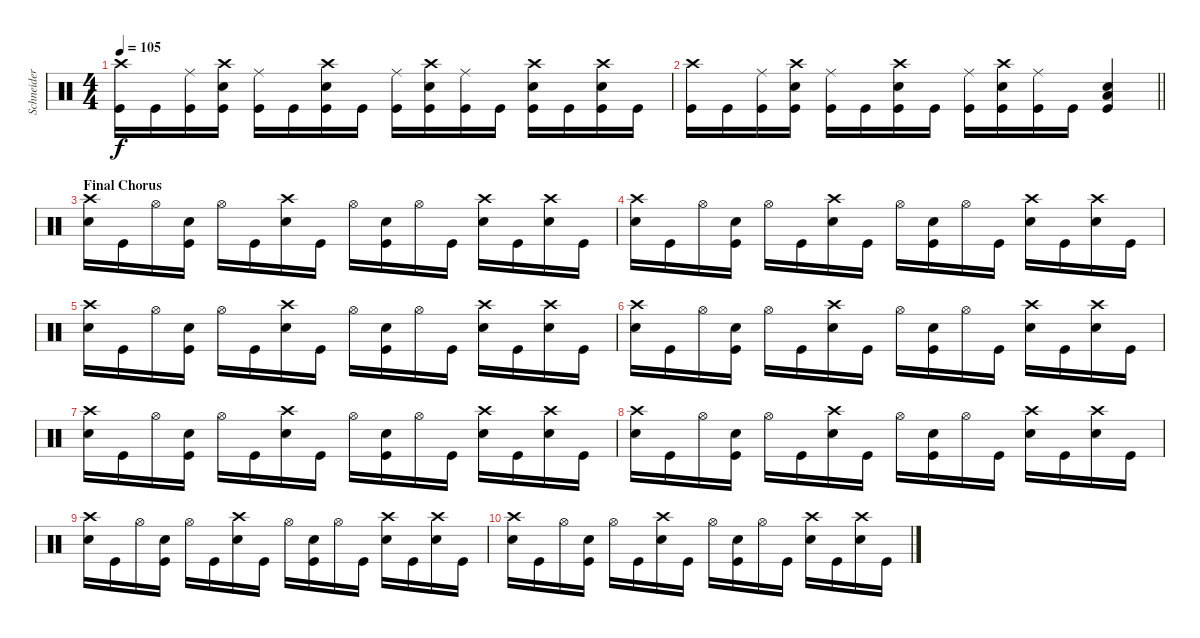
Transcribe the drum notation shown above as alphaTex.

\track ("Schneider" "Schneider") {instrument percussion}
\staff {score}
\articulation defaults
\ts (4 4)
\tempo 105
\clef neutral
\ks c
("Crash high (hit)" "Kick (hit)").16{dy f} "Kick (hit)".16 ("Ride (middle)" "Kick (hit)").16 ("Crash high (hit)" "Electric Snare (hit)" "Kick (hit)").16 ("Ride (middle)" "Kick (hit)").16 "Kick (hit)".16 ("Crash high (hit)" "Electric Snare (hit)" "Kick (hit)").16 "Kick (hit)".16 ("Ride (middle)" "Kick (hit)").16 ("Crash high (hit)" "Electric Snare (hit)" "Kick (hit)").16 ("Ride (middle)" "Kick (hit)").16 "Kick (hit)".16 ("Crash high (hit)" "Electric Snare (hit)" "Kick (hit)").16 "Kick (hit)".16 ("Crash high (hit)" "Electric Snare (hit)" "Kick (hit)").16 "Kick (hit)".16 |
\barLineRight lightlight
("Crash high (hit)" "Kick (hit)").16 "Kick (hit)".16 ("Ride (middle)" "Kick (hit)").16 ("Crash high (hit)" "Electric Snare (hit)" "Kick (hit)").16 ("Ride (middle)" "Kick (hit)").16 "Kick (hit)".16 ("Crash high (hit)" "Electric Snare (hit)" "Kick (hit)").16 "Kick (hit)".16 ("Ride (middle)" "Kick (hit)").16 ("Crash high (hit)" "Electric Snare (hit)" "Kick (hit)").16 ("Ride (middle)" "Kick (hit)").16 "Kick (hit)".16 ("Low Floor Tom (hit)" "Electric Snare (hit)" "Kick (hit)").4 |
\section ("" "Final Chorus")
("Crash high (hit)" "Electric Snare (hit)").16 "Kick (hit)".16 "Hi-Hat (open)".16 ("Electric Snare (hit)" "Kick (hit)").16 "Hi-Hat (open)".16 "Kick (hit)".16 ("Crash high (hit)" "Electric Snare (hit)").16 "Kick (hit)".16 "Hi-Hat (open)".16 ("Electric Snare (hit)" "Kick (hit)").16 "Hi-Hat (open)".16 "Kick (hit)".16 ("Crash high (hit)" "Electric Snare (hit)").16 "Kick (hit)".16 ("Crash high (hit)" "Electric Snare (hit)").16 "Kick (hit)".16 |
("Crash high (hit)" "Electric Snare (hit)").16 "Kick (hit)".16 "Hi-Hat (open)".16 ("Electric Snare (hit)" "Kick (hit)").16 "Hi-Hat (open)".16 "Kick (hit)".16 ("Crash high (hit)" "Electric Snare (hit)").16 "Kick (hit)".16 "Hi-Hat (open)".16 ("Electric Snare (hit)" "Kick (hit)").16 "Hi-Hat (open)".16 "Kick (hit)".16 ("Crash high (hit)" "Electric Snare (hit)").16 "Kick (hit)".16 ("Crash high (hit)" "Electric Snare (hit)").16 "Kick (hit)".16 |
("Crash high (hit)" "Electric Snare (hit)").16 "Kick (hit)".16 "Hi-Hat (open)".16 ("Electric Snare (hit)" "Kick (hit)").16 "Hi-Hat (open)".16 "Kick (hit)".16 ("Crash high (hit)" "Electric Snare (hit)").16 "Kick (hit)".16 "Hi-Hat (open)".16 ("Electric Snare (hit)" "Kick (hit)").16 "Hi-Hat (open)".16 "Kick (hit)".16 ("Crash high (hit)" "Electric Snare (hit)").16 "Kick (hit)".16 ("Crash high (hit)" "Electric Snare (hit)").16 "Kick (hit)".16 |
("Crash high (hit)" "Electric Snare (hit)").16 "Kick (hit)".16 "Hi-Hat (open)".16 ("Electric Snare (hit)" "Kick (hit)").16 "Hi-Hat (open)".16 "Kick (hit)".16 ("Crash high (hit)" "Electric Snare (hit)").16 "Kick (hit)".16 "Hi-Hat (open)".16 ("Electric Snare (hit)" "Kick (hit)").16 "Hi-Hat (open)".16 "Kick (hit)".16 ("Crash high (hit)" "Electric Snare (hit)").16 "Kick (hit)".16 ("Crash high (hit)" "Electric Snare (hit)").16 "Kick (hit)".16 |
("Crash high (hit)" "Electric Snare (hit)").16 "Kick (hit)".16 "Hi-Hat (open)".16 ("Electric Snare (hit)" "Kick (hit)").16 "Hi-Hat (open)".16 "Kick (hit)".16 ("Crash high (hit)" "Electric Snare (hit)").16 "Kick (hit)".16 "Hi-Hat (open)".16 ("Electric Snare (hit)" "Kick (hit)").16 "Hi-Hat (open)".16 "Kick (hit)".16 ("Crash high (hit)" "Electric Snare (hit)").16 "Kick (hit)".16 ("Crash high (hit)" "Electric Snare (hit)").16 "Kick (hit)".16 |
("Crash high (hit)" "Electric Snare (hit)").16 "Kick (hit)".16 "Hi-Hat (open)".16 ("Electric Snare (hit)" "Kick (hit)").16 "Hi-Hat (open)".16 "Kick (hit)".16 ("Crash high (hit)" "Electric Snare (hit)").16 "Kick (hit)".16 "Hi-Hat (open)".16 ("Electric Snare (hit)" "Kick (hit)").16 "Hi-Hat (open)".16 "Kick (hit)".16 ("Crash high (hit)" "Electric Snare (hit)").16 "Kick (hit)".16 ("Crash high (hit)" "Electric Snare (hit)").16 "Kick (hit)".16 |
("Crash high (hit)" "Electric Snare (hit)").16 "Kick (hit)".16 "Hi-Hat (open)".16 ("Electric Snare (hit)" "Kick (hit)").16 "Hi-Hat (open)".16 "Kick (hit)".16 ("Crash high (hit)" "Electric Snare (hit)").16 "Kick (hit)".16 "Hi-Hat (open)".16 ("Electric Snare (hit)" "Kick (hit)").16 "Hi-Hat (open)".16 "Kick (hit)".16 ("Crash high (hit)" "Electric Snare (hit)").16 "Kick (hit)".16 ("Crash high (hit)" "Electric Snare (hit)").16 "Kick (hit)".16 |
("Crash high (hit)" "Electric Snare (hit)").16 "Kick (hit)".16 "Hi-Hat (open)".16 ("Electric Snare (hit)" "Kick (hit)").16 "Hi-Hat (open)".16 "Kick (hit)".16 ("Crash high (hit)" "Electric Snare (hit)").16 "Kick (hit)".16 "Hi-Hat (open)".16 ("Electric Snare (hit)" "Kick (hit)").16 "Hi-Hat (open)".16 "Kick (hit)".16 ("Crash high (hit)" "Electric Snare (hit)").16 "Kick (hit)".16 ("Crash high (hit)" "Electric Snare (hit)").16 "Kick (hit)".16
